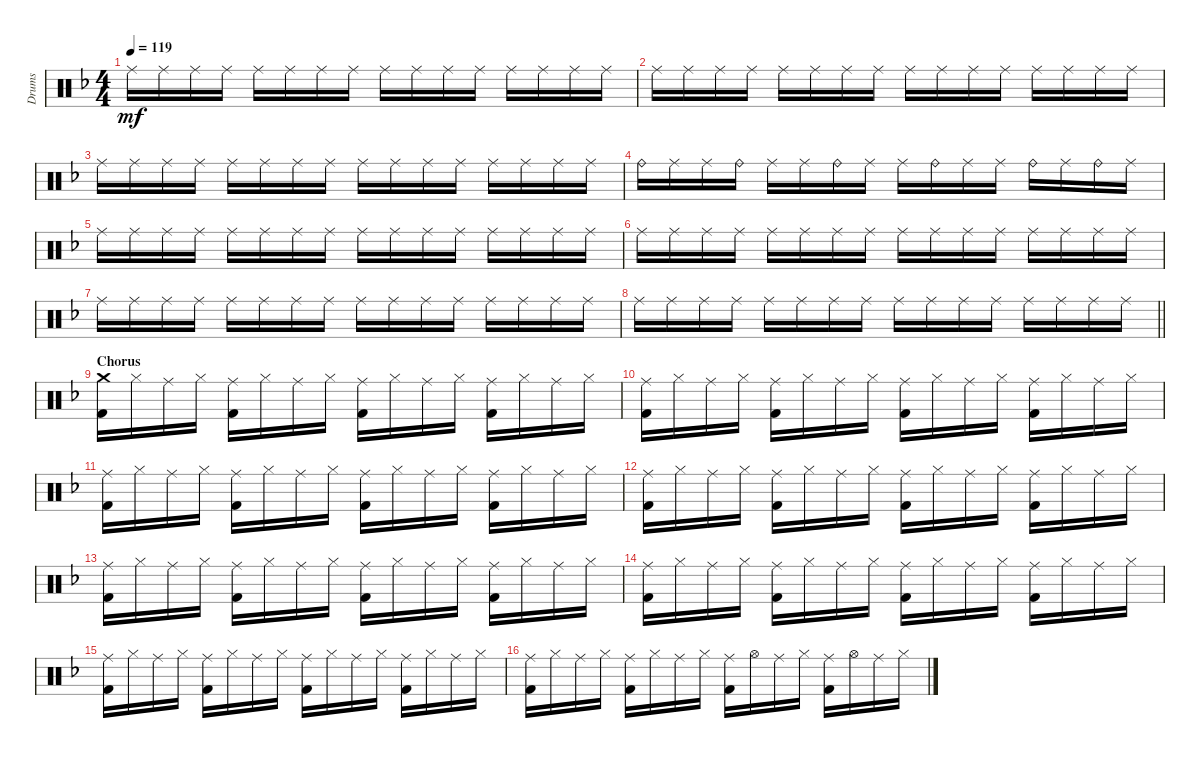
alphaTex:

\track ("Drums" "Drums") {instrument percussion}
\staff {score}
\articulation defaults
\ts (4 4)
\tempo 119
\clef neutral
\ks dminor "Ride (middle)".16{dy mf} "Ride (middle)".16 "Ride (middle)".16 "Ride (middle)".16 "Ride (middle)".16 "Ride (middle)".16 "Ride (middle)".16 "Ride (middle)".16 "Ride (middle)".16 "Ride (middle)".16 "Ride (middle)".16 "Ride (middle)".16 "Ride (middle)".16 "Ride (middle)".16 "Ride (middle)".16 "Ride (middle)".16
|
"Ride (middle)".16 "Ride (middle)".16 "Ride (middle)".16 "Ride (middle)".16 "Ride (middle)".16 "Ride (middle)".16 "Ride (middle)".16 "Ride (middle)".16 "Ride (middle)".16 "Ride (middle)".16 "Ride (middle)".16 "Ride (middle)".16 "Ride (middle)".16 "Ride (middle)".16 "Ride (middle)".16 "Ride (middle)".16 |
"Ride (middle)".16 "Ride (middle)".16 "Ride (middle)".16 "Ride (middle)".16 "Ride (middle)".16 "Ride (middle)".16 "Ride (middle)".16 "Ride (middle)".16 "Ride (middle)".16 "Ride (middle)".16 "Ride (middle)".16 "Ride (middle)".16 "Ride (middle)".16 "Ride (middle)".16 "Ride (middle)".16 "Ride (middle)".16 |
"Ride (bell)".16 "Ride (middle)".16 "Ride (middle)".16 "Ride (bell)".16 "Ride (middle)".16 "Ride (middle)".16 "Ride (bell)".16 "Ride (middle)".16 "Ride (middle)".16 "Ride (bell)".16 "Ride (middle)".16 "Ride (middle)".16 "Ride (bell)".16 "Ride (middle)".16 "Ride (bell)".16 "Ride (middle)".16 |
"Ride (middle)".16 "Ride (middle)".16 "Ride (middle)".16 "Ride (middle)".16 "Ride (middle)".16 "Ride (middle)".16 "Ride (middle)".16 "Ride (middle)".16 "Ride (middle)".16 "Ride (middle)".16 "Ride (middle)".16 "Ride (middle)".16 "Ride (middle)".16 "Ride (middle)".16 "Ride (middle)".16 "Ride (middle)".16 |
"Ride (middle)".16 "Ride (middle)".16 "Ride (middle)".16 "Ride (middle)".16 "Ride (middle)".16 "Ride (middle)".16 "Ride (middle)".16 "Ride (middle)".16 "Ride (middle)".16 "Ride (middle)".16 "Ride (middle)".16 "Ride (middle)".16 "Ride (middle)".16 "Ride (middle)".16 "Ride (middle)".16 "Ride (middle)".16 |
"Ride (middle)".16 "Ride (middle)".16 "Ride (middle)".16 "Ride (middle)".16 "Ride (middle)".16 "Ride (middle)".16 "Ride (middle)".16 "Ride (middle)".16 "Ride (middle)".16 "Ride (middle)".16 "Ride (middle)".16 "Ride (middle)".16 "Ride (middle)".16 "Ride (middle)".16 "Ride (middle)".16 "Ride (middle)".16 |
\barLineRight lightlight "Ride (middle)".16 "Ride (middle)".16 "Ride (middle)".16 "Ride (middle)".16 "Ride (middle)".16 "Ride (middle)".16 "Ride (middle)".16 "Ride (middle)".16 "Ride (middle)".16 "Ride (middle)".16 "Ride (middle)".16 "Ride (middle)".16 "Ride (middle)".16 "Ride (middle)".16 "Ride (middle)".16 "Ride (middle)".16
|
\section ("" "Chorus")
("Crash medium (hit)" "Kick (hit) 2").16 "Hi-Hat (closed)".16 "Ride (middle)".16 "Hi-Hat (closed)".16 ("Ride (middle)" "Kick (hit) 2").16 "Hi-Hat (closed)".16 "Ride (middle)".16 "Hi-Hat (closed)".16 ("Ride (middle)" "Kick (hit) 2").16 "Hi-Hat (closed)".16 "Ride (middle)".16 "Hi-Hat (closed)".16 ("Ride (middle)" "Kick (hit) 2").16 "Hi-Hat (closed)".16 "Ride (middle)".16 "Hi-Hat (closed)".16 |
("Ride (middle)" "Kick (hit) 2").16 "Hi-Hat (closed)".16 "Ride (middle)".16 "Hi-Hat (closed)".16 ("Ride (middle)" "Kick (hit) 2").16 "Hi-Hat (closed)".16 "Ride (middle)".16 "Hi-Hat (closed)".16 ("Ride (middle)" "Kick (hit) 2").16 "Hi-Hat (closed)".16 "Ride (middle)".16 "Hi-Hat (closed)".16 ("Ride (middle)" "Kick (hit) 2").16 "Hi-Hat (closed)".16 "Ride (middle)".16 "Hi-Hat (closed)".16 |
("Ride (middle)" "Kick (hit) 2").16 "Hi-Hat (closed)".16 "Ride (middle)".16 "Hi-Hat (closed)".16 ("Ride (middle)" "Kick (hit) 2").16 "Hi-Hat (closed)".16 "Ride (middle)".16 "Hi-Hat (closed)".16 ("Ride (middle)" "Kick (hit) 2").16 "Hi-Hat (closed)".16 "Ride (middle)".16 "Hi-Hat (closed)".16 ("Ride (middle)" "Kick (hit) 2").16 "Hi-Hat (closed)".16 "Ride (middle)".16 "Hi-Hat (closed)".16 |
("Ride (middle)" "Kick (hit) 2").16 "Hi-Hat (closed)".16 "Ride (middle)".16 "Hi-Hat (closed)".16 ("Ride (middle)" "Kick (hit) 2").16 "Hi-Hat (closed)".16 "Ride (middle)".16 "Hi-Hat (closed)".16 ("Ride (middle)" "Kick (hit) 2").16 "Hi-Hat (closed)".16 "Ride (middle)".16 "Hi-Hat (closed)".16 ("Ride (middle)" "Kick (hit) 2").16 "Hi-Hat (closed)".16 "Ride (middle)".16 "Hi-Hat (closed)".16 |
("Ride (middle)" "Kick (hit) 2").16 "Hi-Hat (closed)".16 "Ride (middle)".16 "Hi-Hat (closed)".16 ("Ride (middle)" "Kick (hit) 2").16 "Hi-Hat (closed)".16 "Ride (middle)".16 "Hi-Hat (closed)".16 ("Ride (middle)" "Kick (hit) 2").16 "Hi-Hat (closed)".16 "Ride (middle)".16 "Hi-Hat (closed)".16 ("Ride (middle)" "Kick (hit) 2").16 "Hi-Hat (closed)".16 "Ride (middle)".16 "Hi-Hat (closed)".16 |
("Ride (middle)" "Kick (hit) 2").16 "Hi-Hat (closed)".16 "Ride (middle)".16 "Hi-Hat (closed)".16 ("Ride (middle)" "Kick (hit) 2").16 "Hi-Hat (closed)".16 "Ride (middle)".16 "Hi-Hat (closed)".16 ("Ride (middle)" "Kick (hit) 2").16 "Hi-Hat (closed)".16 "Ride (middle)".16 "Hi-Hat (closed)".16 ("Ride (middle)" "Kick (hit) 2").16 "Hi-Hat (closed)".16 "Ride (middle)".16 "Hi-Hat (closed)".16 |
("Ride (middle)" "Kick (hit) 2").16 "Hi-Hat (closed)".16 "Ride (middle)".16 "Hi-Hat (closed)".16 ("Ride (middle)" "Kick (hit) 2").16 "Hi-Hat (closed)".16 "Ride (middle)".16 "Hi-Hat (closed)".16 ("Ride (middle)" "Kick (hit) 2").16 "Hi-Hat (closed)".16 "Ride (middle)".16 "Hi-Hat (closed)".16 ("Ride (middle)" "Kick (hit) 2").16 "Hi-Hat (closed)".16 "Ride (middle)".16 "Hi-Hat (closed)".16 |
("Ride (middle)" "Kick (hit) 2").16 "Hi-Hat (closed)".16 "Ride (middle)".16 "Hi-Hat (closed)".16 ("Ride (middle)" "Kick (hit) 2").16 "Hi-Hat (closed)".16 "Ride (middle)".16 "Hi-Hat (closed)".16 ("Ride (middle)" "Kick (hit) 2").16 "Hi-Hat (open)".16 "Ride (middle)".16 "Hi-Hat (closed)".16 ("Ride (middle)" "Kick (hit) 2").16 "Hi-Hat (open)".16 "Ride (middle)".16 "Hi-Hat (closed)".16
